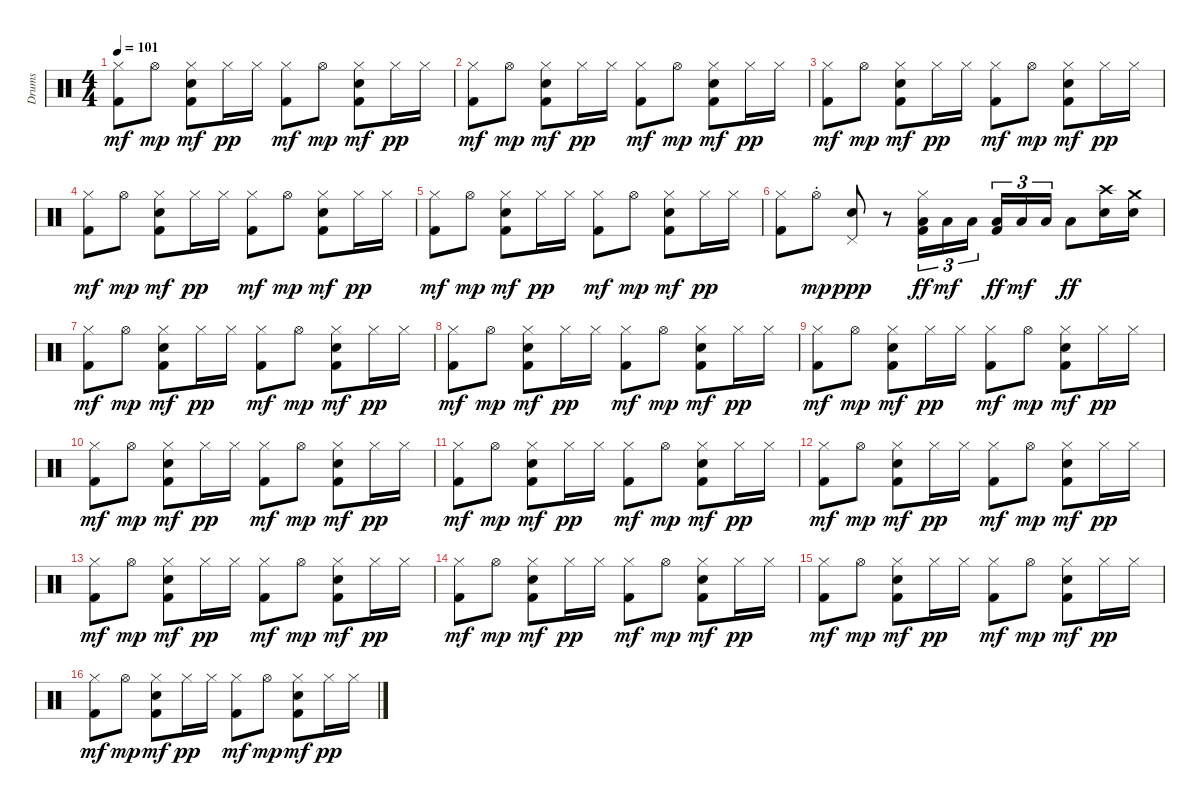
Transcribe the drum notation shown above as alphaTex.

\track ("Drums" "Drums") {instrument percussion}
\staff {score}
\articulation defaults
\ts (4 4)
\tempo 101
\clef neutral
\ks c
("Hi-Hat (closed)" "Kick (hit) 2").8{dy mf} "Hi-Hat (open)".8{dy mp} ("Hi-Hat (closed)" "Snare (hit) 2" "Kick (hit) 2").8{dy mf} "Hi-Hat (closed)".16{dy pp} "Hi-Hat (closed)".16 ("Hi-Hat (closed)" "Kick (hit) 2").8{dy mf} "Hi-Hat (open)".8{dy mp} ("Hi-Hat (closed)" "Snare (hit) 2" "Kick (hit) 2").8{dy mf} "Hi-Hat (closed)".16{dy pp} "Hi-Hat (closed)".16 |
("Hi-Hat (closed)" "Kick (hit) 2").8{dy mf} "Hi-Hat (open)".8{dy mp} ("Hi-Hat (closed)" "Snare (hit) 2" "Kick (hit) 2").8{dy mf} "Hi-Hat (closed)".16{dy pp} "Hi-Hat (closed)".16 ("Hi-Hat (closed)" "Kick (hit) 2").8{dy mf} "Hi-Hat (open)".8{dy mp} ("Hi-Hat (closed)" "Snare (hit) 2" "Kick (hit) 2").8{dy mf} "Hi-Hat (closed)".16{dy pp} "Hi-Hat (closed)".16 |
("Hi-Hat (closed)" "Kick (hit) 2").8{dy mf} "Hi-Hat (open)".8{dy mp} ("Hi-Hat (closed)" "Snare (hit) 2" "Kick (hit) 2").8{dy mf} "Hi-Hat (closed)".16{dy pp} "Hi-Hat (closed)".16 ("Hi-Hat (closed)" "Kick (hit) 2").8{dy mf} "Hi-Hat (open)".8{dy mp} ("Hi-Hat (closed)" "Snare (hit) 2" "Kick (hit) 2").8{dy mf} "Hi-Hat (closed)".16{dy pp} "Hi-Hat (closed)".16 |
("Hi-Hat (closed)" "Kick (hit) 2").8{dy mf} "Hi-Hat (open)".8{dy mp} ("Hi-Hat (closed)" "Snare (hit) 2" "Kick (hit) 2").8{dy mf} "Hi-Hat (closed)".16{dy pp} "Hi-Hat (closed)".16 ("Hi-Hat (closed)" "Kick (hit) 2").8{dy mf} "Hi-Hat (open)".8{dy mp} ("Hi-Hat (closed)" "Snare (hit) 2" "Kick (hit) 2").8{dy mf} "Hi-Hat (closed)".16{dy pp} "Hi-Hat (closed)".16 |
("Hi-Hat (closed)" "Kick (hit) 2").8{dy mf} "Hi-Hat (open)".8{dy mp} ("Hi-Hat (closed)" "Snare (hit) 2" "Kick (hit) 2").8{dy mf} "Hi-Hat (closed)".16{dy pp} "Hi-Hat (closed)".16 ("Hi-Hat (closed)" "Kick (hit) 2").8{dy mf} "Hi-Hat (open)".8{dy mp} ("Hi-Hat (closed)" "Snare (hit) 2" "Kick (hit) 2").8{dy mf} "Hi-Hat (closed)".16{dy pp} "Hi-Hat (closed)".16 |
("Hi-Hat (closed)" "Kick (hit) 2").8 "Hi-Hat (open)"{st}.8{dy mp} ("Pedal Hi-Hat (hit)" "Snare (hit) 2").8{dy ppp} r.8 ("Hi-Hat (closed)" "Low Tom (hit)" "Kick (hit) 2").16{tu (3 2) dy ff} "Low Tom (hit)".16{tu (3 2) dy mf} "Low Tom (hit)".16{tu (3 2) beam splitsecondary} ("Low Tom (hit)" "Kick (hit) 2").16{tu (3 2) dy ff} "Low Tom (hit)".16{tu (3 2) dy mf} "Low Tom (hit)".16{tu (3 2)} "Low Tom (hit)".8{dy ff} ("Crash high (hit)" "Snare (hit) 2").16 ("Crash medium (hit)" "Snare (hit) 2").16 |
("Hi-Hat (closed)" "Kick (hit) 2").8{dy mf} "Hi-Hat (open)".8{dy mp} ("Hi-Hat (closed)" "Snare (hit) 2" "Kick (hit) 2").8{dy mf} "Hi-Hat (closed)".16{dy pp} "Hi-Hat (closed)".16 ("Hi-Hat (closed)" "Kick (hit) 2").8{dy mf} "Hi-Hat (open)".8{dy mp} ("Hi-Hat (closed)" "Snare (hit) 2" "Kick (hit) 2").8{dy mf} "Hi-Hat (closed)".16{dy pp} "Hi-Hat (closed)".16 |
("Hi-Hat (closed)" "Kick (hit) 2").8{dy mf} "Hi-Hat (open)".8{dy mp} ("Hi-Hat (closed)" "Snare (hit) 2" "Kick (hit) 2").8{dy mf} "Hi-Hat (closed)".16{dy pp} "Hi-Hat (closed)".16 ("Hi-Hat (closed)" "Kick (hit) 2").8{dy mf} "Hi-Hat (open)".8{dy mp} ("Hi-Hat (closed)" "Snare (hit) 2" "Kick (hit) 2").8{dy mf} "Hi-Hat (closed)".16{dy pp} "Hi-Hat (closed)".16 |
("Hi-Hat (closed)" "Kick (hit) 2").8{dy mf} "Hi-Hat (open)".8{dy mp} ("Hi-Hat (closed)" "Snare (hit) 2" "Kick (hit) 2").8{dy mf} "Hi-Hat (closed)".16{dy pp} "Hi-Hat (closed)".16 ("Hi-Hat (closed)" "Kick (hit) 2").8{dy mf} "Hi-Hat (open)".8{dy mp} ("Hi-Hat (closed)" "Snare (hit) 2" "Kick (hit) 2").8{dy mf} "Hi-Hat (closed)".16{dy pp} "Hi-Hat (closed)".16 |
("Hi-Hat (closed)" "Kick (hit) 2").8{dy mf} "Hi-Hat (open)".8{dy mp} ("Hi-Hat (closed)" "Snare (hit) 2" "Kick (hit) 2").8{dy mf} "Hi-Hat (closed)".16{dy pp} "Hi-Hat (closed)".16 ("Hi-Hat (closed)" "Kick (hit) 2").8{dy mf} "Hi-Hat (open)".8{dy mp} ("Hi-Hat (closed)" "Snare (hit) 2" "Kick (hit) 2").8{dy mf} "Hi-Hat (closed)".16{dy pp} "Hi-Hat (closed)".16 |
("Hi-Hat (closed)" "Kick (hit) 2").8{dy mf} "Hi-Hat (open)".8{dy mp} ("Hi-Hat (closed)" "Snare (hit) 2" "Kick (hit) 2").8{dy mf} "Hi-Hat (closed)".16{dy pp} "Hi-Hat (closed)".16 ("Hi-Hat (closed)" "Kick (hit) 2").8{dy mf} "Hi-Hat (open)".8{dy mp} ("Hi-Hat (closed)" "Snare (hit) 2" "Kick (hit) 2").8{dy mf} "Hi-Hat (closed)".16{dy pp} "Hi-Hat (closed)".16 |
("Hi-Hat (closed)" "Kick (hit) 2").8{dy mf} "Hi-Hat (open)".8{dy mp} ("Hi-Hat (closed)" "Snare (hit) 2" "Kick (hit) 2").8{dy mf} "Hi-Hat (closed)".16{dy pp} "Hi-Hat (closed)".16 ("Hi-Hat (closed)" "Kick (hit) 2").8{dy mf} "Hi-Hat (open)".8{dy mp} ("Hi-Hat (closed)" "Snare (hit) 2" "Kick (hit) 2").8{dy mf} "Hi-Hat (closed)".16{dy pp} "Hi-Hat (closed)".16 |
("Hi-Hat (closed)" "Kick (hit) 2").8{dy mf} "Hi-Hat (open)".8{dy mp} ("Hi-Hat (closed)" "Snare (hit) 2" "Kick (hit) 2").8{dy mf} "Hi-Hat (closed)".16{dy pp} "Hi-Hat (closed)".16 ("Hi-Hat (closed)" "Kick (hit) 2").8{dy mf} "Hi-Hat (open)".8{dy mp} ("Hi-Hat (closed)" "Snare (hit) 2" "Kick (hit) 2").8{dy mf} "Hi-Hat (closed)".16{dy pp} "Hi-Hat (closed)".16 |
("Hi-Hat (closed)" "Kick (hit) 2").8{dy mf} "Hi-Hat (open)".8{dy mp} ("Hi-Hat (closed)" "Snare (hit) 2" "Kick (hit) 2").8{dy mf} "Hi-Hat (closed)".16{dy pp} "Hi-Hat (closed)".16 ("Hi-Hat (closed)" "Kick (hit) 2").8{dy mf} "Hi-Hat (open)".8{dy mp} ("Hi-Hat (closed)" "Snare (hit) 2" "Kick (hit) 2").8{dy mf} "Hi-Hat (closed)".16{dy pp} "Hi-Hat (closed)".16 |
("Hi-Hat (closed)" "Kick (hit) 2").8{dy mf} "Hi-Hat (open)".8{dy mp} ("Hi-Hat (closed)" "Snare (hit) 2" "Kick (hit) 2").8{dy mf} "Hi-Hat (closed)".16{dy pp} "Hi-Hat (closed)".16 ("Hi-Hat (closed)" "Kick (hit) 2").8{dy mf} "Hi-Hat (open)".8{dy mp} ("Hi-Hat (closed)" "Snare (hit) 2" "Kick (hit) 2").8{dy mf} "Hi-Hat (closed)".16{dy pp} "Hi-Hat (closed)".16 |
("Hi-Hat (closed)" "Kick (hit) 2").8{dy mf} "Hi-Hat (open)".8{dy mp} ("Hi-Hat (closed)" "Snare (hit) 2" "Kick (hit) 2").8{dy mf} "Hi-Hat (closed)".16{dy pp} "Hi-Hat (closed)".16 ("Hi-Hat (closed)" "Kick (hit) 2").8{dy mf} "Hi-Hat (open)".8{dy mp} ("Hi-Hat (closed)" "Snare (hit) 2" "Kick (hit) 2").8{dy mf} "Hi-Hat (closed)".16{dy pp} "Hi-Hat (closed)".16
